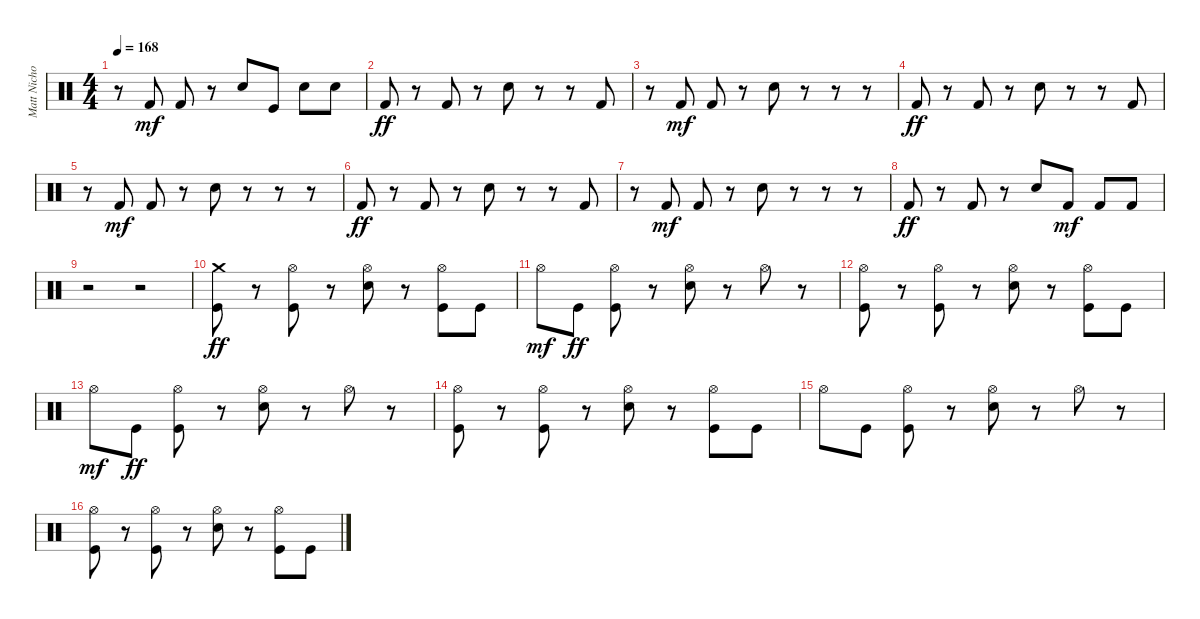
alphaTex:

\track ("Matt Nicholls" "Matt Nicho") {instrument percussion}
\staff {score}
\articulation defaults
\ts (4 4)
\tempo 168
\clef neutral
\ks c
r.8{dy ff} "Kick (hit) 2".8{dy mf} "Kick (hit) 2".8 r.8 "Electric Snare (hit)".8 "Kick (hit)".8 "Snare (hit) 2".8 "Snare (hit) 2".8 |
"Kick (hit) 2".8{dy ff} r.8 "Kick (hit) 2".8 r.8 "Electric Snare (hit)".8 r.8 r.8 "Kick (hit) 2".8 |
r.8 "Kick (hit) 2".8{dy mf} "Kick (hit) 2".8 r.8 "Electric Snare (hit)".8 r.8 r.8 r.8 |
"Kick (hit) 2".8{dy ff} r.8 "Kick (hit) 2".8 r.8 "Electric Snare (hit)".8 r.8 r.8 "Kick (hit) 2".8 |
r.8 "Kick (hit) 2".8{dy mf} "Kick (hit) 2".8 r.8 "Electric Snare (hit)".8 r.8 r.8 r.8 |
"Kick (hit) 2".8{dy ff} r.8 "Kick (hit) 2".8 r.8 "Electric Snare (hit)".8 r.8 r.8 "Kick (hit) 2".8 |
r.8 "Kick (hit) 2".8{dy mf} "Kick (hit) 2".8 r.8 "Electric Snare (hit)".8 r.8 r.8 r.8 |
"Kick (hit) 2".8{dy ff} r.8 "Kick (hit) 2".8 r.8 "Electric Snare (hit)".8 "Kick (hit) 2".8{dy mf} "Kick (hit) 2".8 "Kick (hit) 2".8 |
r.2 r.2 |
("Kick (hit)" "Crash medium (hit)").8{dy ff} r.8 ("Kick (hit)" "Hi-Hat (open)").8 r.8 ("Snare (hit) 2" "Hi-Hat (open)").8 r.8 ("Kick (hit)" "Hi-Hat (open)").8 "Kick (hit)".8 |
"Hi-Hat (open)".8{dy mf} "Kick (hit)".8{dy ff} ("Kick (hit)" "Hi-Hat (open)").8 r.8 ("Hi-Hat (open)" "Snare (hit) 2").8 r.8 "Hi-Hat (open)".8 r.8 |
("Kick (hit)" "Hi-Hat (open)").8 r.8 ("Kick (hit)" "Hi-Hat (open)").8 r.8 ("Snare (hit) 2" "Hi-Hat (open)").8 r.8 ("Kick (hit)" "Hi-Hat (open)").8 "Kick (hit)".8 |
"Hi-Hat (open)".8{dy mf} "Kick (hit)".8{dy ff} ("Kick (hit)" "Hi-Hat (open)").8 r.8 ("Hi-Hat (open)" "Snare (hit) 2").8 r.8 "Hi-Hat (open)".8 r.8 |
("Kick (hit)" "Hi-Hat (open)").8 r.8 ("Kick (hit)" "Hi-Hat (open)").8 r.8 ("Snare (hit) 2" "Hi-Hat (open)").8 r.8 ("Kick (hit)" "Hi-Hat (open)").8 "Kick (hit)".8 |
"Hi-Hat (open)".8 "Kick (hit)".8 ("Kick (hit)" "Hi-Hat (open)").8 r.8 ("Hi-Hat (open)" "Snare (hit) 2").8 r.8 "Hi-Hat (open)".8 r.8 |
("Kick (hit)" "Hi-Hat (open)").8 r.8 ("Kick (hit)" "Hi-Hat (open)").8 r.8 ("Snare (hit) 2" "Hi-Hat (open)").8 r.8 ("Kick (hit)" "Hi-Hat (open)").8 "Kick (hit)".8
